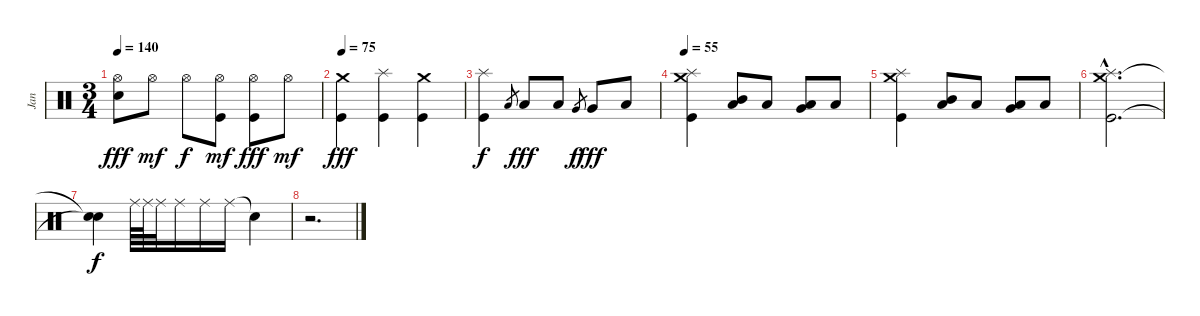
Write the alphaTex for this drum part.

\track ("Jan" "Jan") {instrument percussion}
\staff {score}
\articulation defaults
\ts (3 4)
\tempo 140
\clef neutral
\ks c
("Snare (hit) 2" "Hi-Hat (open)").8{dy fff} "Hi-Hat (open)".8{dy mf} "Hi-Hat (open)".8{dy f} ("Kick (hit)" "Hi-Hat (open)").8{dy mf} ("Kick (hit)" "Hi-Hat (open)").8{dy fff} "Hi-Hat (open)".8{dy mf} |
\tempo 75
("Kick (hit)" "Crash medium (hit)").4{dy fff} ("Kick (hit)" "Splash (hit)").4 ("Kick (hit)" "Crash medium (hit)").4 |
("Kick (hit)" "Splash (hit)").4{dy f} "Low Tom (hit)".8{gr} "Low Tom (hit)".8{dy fff} "Low Tom (hit)".8 "Very Low Tom (hit)".8{gr dy f} "Very Low Tom (hit)".8{dy fff} "Low Tom (hit)".8 |
\tempo 55
("Kick (hit)" "Crash medium (hit)" "Splash (hit)").4 ("Mid Tom (hit)" "Low Tom (hit)").8 "Low Tom (hit)".8 ("Very Low Tom (hit)" "Low Tom (hit)").8 "Low Tom (hit)".8 |
("Kick (hit)" "Crash medium (hit)" "Splash (hit)").4 ("Mid Tom (hit)" "Low Tom (hit)").8 "Low Tom (hit)".8 ("Very Low Tom (hit)" "Low Tom (hit)").8 "Low Tom (hit)".8 |
("Kick (hit)"{hac} "Crash medium (hit)"{hac} "Splash (hit)"{hac}).2{d} |
("Snare (hit)"{t} "Snare (hit)"{t}).4{dy f} "Ride (middle)".64 "Ride (middle)".64 "Ride (middle)".32 "Ride (middle)".16 "Ride (middle)".16 "Ride (middle)".16 "Snare (hit)"{t}.4 |
r.2{d}
